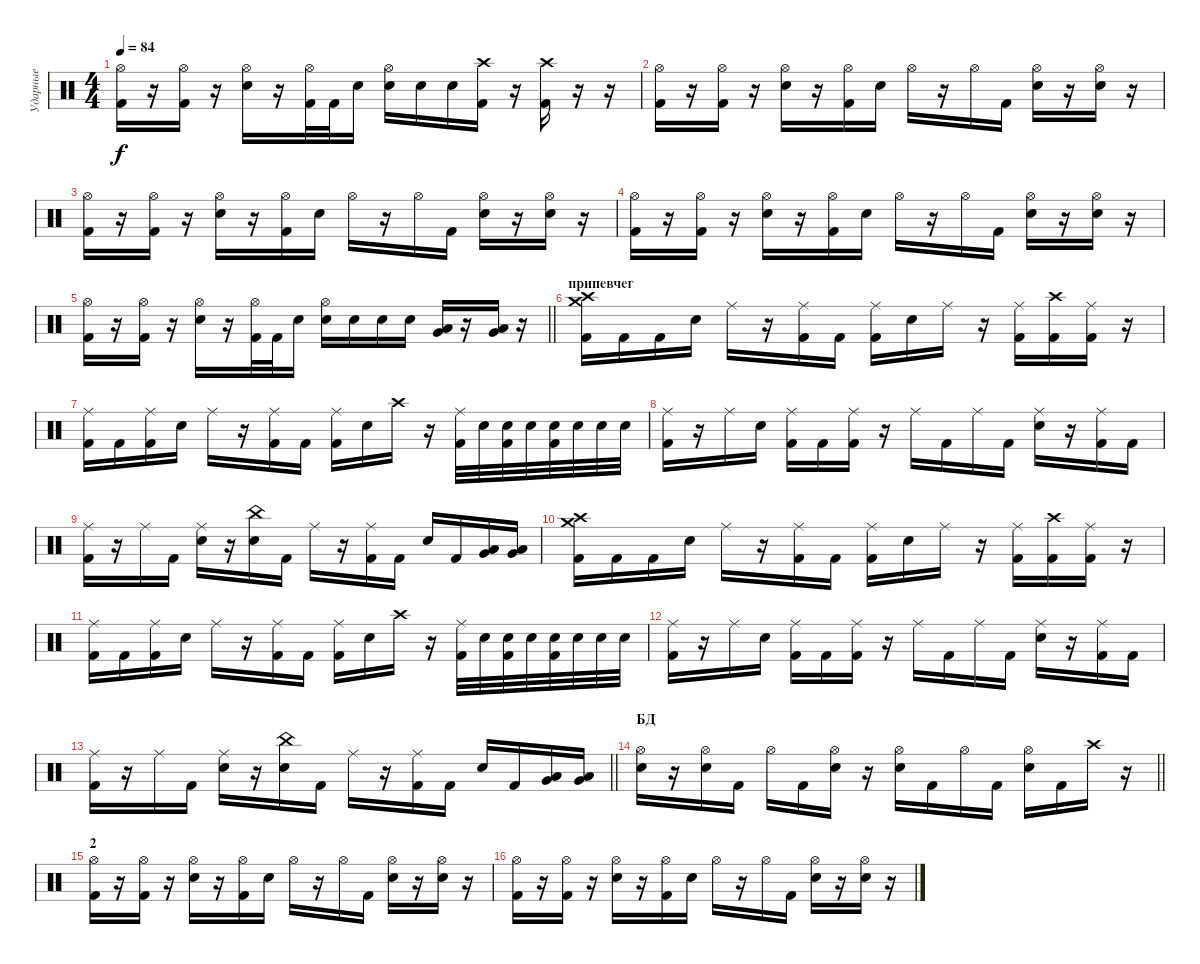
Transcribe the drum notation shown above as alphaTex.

\track ("Ударные" "Ударные") {instrument percussion}
\staff {score}
\articulation defaults
\ts (4 4)
\tempo 84
\clef neutral
\ks c
("Hi-Hat (open)" "Kick (hit) 2").16{dy f} r.16 ("Hi-Hat (open)" "Kick (hit) 2").16 r.16 ("Hi-Hat (open)" "Snare (hit) 2").16 r.16 ("Hi-Hat (open)" "Kick (hit) 2").32 "Kick (hit) 2".32 "Snare (hit) 2".16 ("Hi-Hat (open)" "Snare (hit) 2").16 "Snare (hit) 2".16 "Snare (hit) 2".16 ("Crash high (hit)" "Kick (hit) 2").16 r.16 ("Crash high (hit)" "Kick (hit) 2").16 r.16 r.16 |
("Hi-Hat (open)" "Kick (hit) 2").16 r.16 ("Hi-Hat (open)" "Kick (hit) 2").16 r.16 ("Hi-Hat (open)" "Snare (hit) 2").16 r.16 ("Hi-Hat (open)" "Kick (hit) 2").16 "Snare (hit) 2".16 "Hi-Hat (open)".16 r.16 "Hi-Hat (open)".16 "Kick (hit) 2".16 ("Hi-Hat (open)" "Snare (hit) 2").16 r.16 ("Hi-Hat (open)" "Snare (hit) 2").16 r.16 |
("Hi-Hat (open)" "Kick (hit) 2").16 r.16 ("Hi-Hat (open)" "Kick (hit) 2").16 r.16 ("Hi-Hat (open)" "Snare (hit) 2").16 r.16 ("Hi-Hat (open)" "Kick (hit) 2").16 "Snare (hit) 2".16 "Hi-Hat (open)".16 r.16 "Hi-Hat (open)".16 "Kick (hit) 2".16 ("Hi-Hat (open)" "Snare (hit) 2").16 r.16 ("Hi-Hat (open)" "Snare (hit) 2").16 r.16 |
("Hi-Hat (open)" "Kick (hit) 2").16 r.16 ("Hi-Hat (open)" "Kick (hit) 2").16 r.16 ("Hi-Hat (open)" "Snare (hit) 2").16 r.16 ("Hi-Hat (open)" "Kick (hit) 2").16 "Snare (hit) 2".16 "Hi-Hat (open)".16 r.16 "Hi-Hat (open)".16 "Kick (hit) 2".16 ("Hi-Hat (open)" "Snare (hit) 2").16 r.16 ("Hi-Hat (open)" "Snare (hit) 2").16 r.16 |
\barLineRight lightlight
("Hi-Hat (open)" "Kick (hit) 2").16 r.16 ("Hi-Hat (open)" "Kick (hit) 2").16 r.16 ("Hi-Hat (open)" "Snare (hit) 2").16 r.16 ("Hi-Hat (open)" "Kick (hit) 2").32 "Kick (hit) 2".32 "Snare (hit) 2".16 ("Hi-Hat (open)" "Snare (hit) 2").16 "Snare (hit) 2".16 "Snare (hit) 2".16 "Snare (hit) 2".16 ("Low Tom (hit)" "Very Low Tom (hit)").16 r.16 ("Very Low Tom (hit)" "Low Floor Tom (hit)").16 r.16 |
\section ("" "припевчег")
("Crash high (hit)" "Crash medium (hit)" "Kick (hit) 2").16 "Kick (hit) 2".16 "Kick (hit) 2".16 "Snare (hit) 2".16 "Ride (middle)".16 r.16 ("Ride (middle)" "Kick (hit) 2").16 "Kick (hit) 2".16 ("Ride (middle)" "Kick (hit) 2").16 "Snare (hit) 2".16 "Ride (middle)".16 r.16 ("Ride (middle)" "Kick (hit) 2").16 ("Crash high (hit)" "Kick (hit) 2").16 ("Ride (middle)" "Kick (hit) 2").16 r.16 |
("Ride (middle)" "Kick (hit) 2").16 "Kick (hit) 2".16 ("Ride (middle)" "Kick (hit) 2").16 "Snare (hit) 2".16 "Ride (middle)".16 r.16 ("Ride (middle)" "Kick (hit) 2").16 "Kick (hit) 2".16 ("Ride (middle)" "Kick (hit) 2").16 "Snare (hit) 2".16 "Crash high (hit)".16 r.16 ("Ride (middle)" "Kick (hit) 2").32 "Snare (hit) 2".32 ("Snare (hit) 2" "Kick (hit) 2").32 "Snare (hit) 2".32 ("Snare (hit) 2" "Kick (hit) 2").32 "Snare (hit) 2".32 "Snare (hit) 2".32 "Snare (hit) 2".32 |
("Ride (middle)" "Kick (hit) 2").16 r.16 "Ride (middle)".16 "Snare (hit) 2".16 ("Ride (middle)" "Kick (hit) 2").16 "Kick (hit) 2".16 ("Ride (middle)" "Kick (hit) 2").16 r.16 "Ride (middle)".16 "Kick (hit) 2".16 "Ride (middle)".16 "Kick (hit) 2".16 ("Ride (middle)" "Snare (hit) 2").16 r.16 ("Ride (middle)" "Kick (hit) 2").16 "Kick (hit) 2".16 |
("Ride (middle)" "Kick (hit) 2").16 r.16 "Ride (middle)".16 "Kick (hit) 2".16 ("Ride (middle)" "Snare (hit) 2").16 r.16 ("China (hit)" "Snare (hit) 2").16 "Kick (hit) 2".16 "Ride (middle)".16 r.16 ("Ride (middle)" "Kick (hit) 2").16 "Kick (hit) 2".16 "Snare (hit) 2".16 "Kick (hit) 2".16 ("Low Tom (hit)" "Very Low Tom (hit)").16 ("Very Low Tom (hit)" "Low Floor Tom (hit)").16 |
("Crash high (hit)" "Crash medium (hit)" "Kick (hit) 2").16 "Kick (hit) 2".16 "Kick (hit) 2".16 "Snare (hit) 2".16 "Ride (middle)".16 r.16 ("Ride (middle)" "Kick (hit) 2").16 "Kick (hit) 2".16 ("Ride (middle)" "Kick (hit) 2").16 "Snare (hit) 2".16 "Ride (middle)".16 r.16 ("Ride (middle)" "Kick (hit) 2").16 ("Crash high (hit)" "Kick (hit) 2").16 ("Ride (middle)" "Kick (hit) 2").16 r.16 |
("Ride (middle)" "Kick (hit) 2").16 "Kick (hit) 2".16 ("Ride (middle)" "Kick (hit) 2").16 "Snare (hit) 2".16 "Ride (middle)".16 r.16 ("Ride (middle)" "Kick (hit) 2").16 "Kick (hit) 2".16 ("Ride (middle)" "Kick (hit) 2").16 "Snare (hit) 2".16 "Crash high (hit)".16 r.16 ("Ride (middle)" "Kick (hit) 2").32 "Snare (hit) 2".32 ("Snare (hit) 2" "Kick (hit) 2").32 "Snare (hit) 2".32 ("Snare (hit) 2" "Kick (hit) 2").32 "Snare (hit) 2".32 "Snare (hit) 2".32 "Snare (hit) 2".32 |
("Ride (middle)" "Kick (hit) 2").16 r.16 "Ride (middle)".16 "Snare (hit) 2".16 ("Ride (middle)" "Kick (hit) 2").16 "Kick (hit) 2".16 ("Ride (middle)" "Kick (hit) 2").16 r.16 "Ride (middle)".16 "Kick (hit) 2".16 "Ride (middle)".16 "Kick (hit) 2".16 ("Ride (middle)" "Snare (hit) 2").16 r.16 ("Ride (middle)" "Kick (hit) 2").16 "Kick (hit) 2".16 |
\barLineRight lightlight
("Ride (middle)" "Kick (hit) 2").16 r.16 "Ride (middle)".16 "Kick (hit) 2".16 ("Ride (middle)" "Snare (hit) 2").16 r.16 ("China (hit)" "Snare (hit) 2").16 "Kick (hit) 2".16 "Ride (middle)".16 r.16 ("Ride (middle)" "Kick (hit) 2").16 "Kick (hit) 2".16 "Snare (hit) 2".16 "Kick (hit) 2".16 ("Low Tom (hit)" "Very Low Tom (hit)").16 ("Very Low Tom (hit)" "Low Floor Tom (hit)").16 |
\section ("" "БД")
\barLineRight lightlight
("Hi-Hat (open)" "Snare (hit) 2").16 r.16 ("Hi-Hat (open)" "Snare (hit) 2").16 "Kick (hit) 2".16 "Hi-Hat (open)".16 "Kick (hit) 2".16 ("Hi-Hat (open)" "Snare (hit) 2").16 r.16 ("Hi-Hat (open)" "Snare (hit) 2").16 "Kick (hit) 2".16 "Hi-Hat (open)".16 "Kick (hit) 2".16 ("Hi-Hat (open)" "Snare (hit) 2").16 "Kick (hit) 2".16 "Crash high (hit)".16 r.16 |
\section ("" "2")
("Hi-Hat (open)" "Kick (hit) 2").16 r.16 ("Hi-Hat (open)" "Kick (hit) 2").16 r.16 ("Hi-Hat (open)" "Snare (hit) 2").16 r.16 ("Hi-Hat (open)" "Kick (hit) 2").16 "Snare (hit) 2".16 "Hi-Hat (open)".16 r.16 "Hi-Hat (open)".16 "Kick (hit) 2".16 ("Hi-Hat (open)" "Snare (hit) 2").16 r.16 ("Hi-Hat (open)" "Snare (hit) 2").16 r.16 |
("Hi-Hat (open)" "Kick (hit) 2").16 r.16 ("Hi-Hat (open)" "Kick (hit) 2").16 r.16 ("Hi-Hat (open)" "Snare (hit) 2").16 r.16 ("Hi-Hat (open)" "Kick (hit) 2").16 "Snare (hit) 2".16 "Hi-Hat (open)".16 r.16 "Hi-Hat (open)".16 "Kick (hit) 2".16 ("Hi-Hat (open)" "Snare (hit) 2").16 r.16 ("Hi-Hat (open)" "Snare (hit) 2").16 r.16
